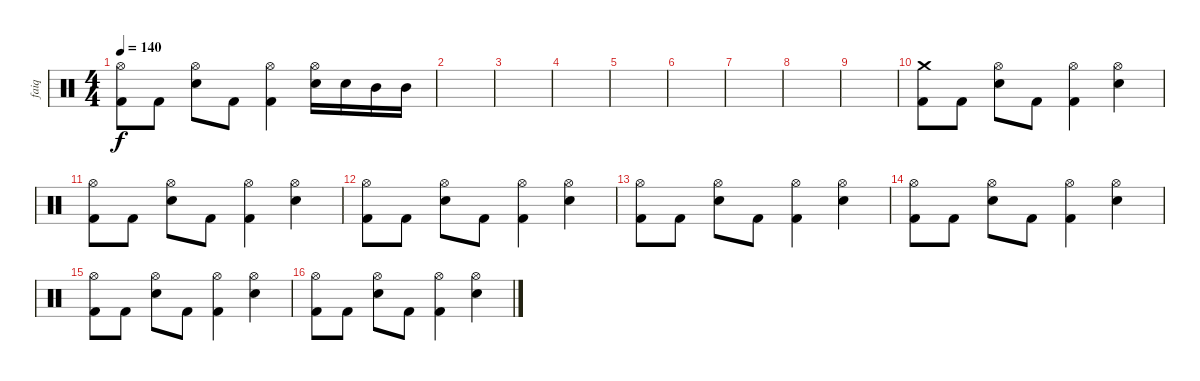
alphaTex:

\track ("faiq" "faiq") {instrument percussion}
\staff {score}
\articulation defaults
\ts (4 4)
\tempo 140
\clef neutral
\ks c
("Hi-Hat (open)" "Kick (hit) 2").8{dy f} "Kick (hit) 2".8 ("Hi-Hat (open)" "Electric Snare (hit)").8 "Kick (hit) 2".8 ("Hi-Hat (open)" "Kick (hit) 2").4 ("Hi-Hat (open)" "Electric Snare (hit)").16 "Electric Snare (hit)".16 "Mid Tom (hit)".16 "Mid Tom (hit)".16 |
|
|
|
|
|
|
|
|
("Crash medium (hit)" "Kick (hit) 2").8 "Kick (hit) 2".8 ("Hi-Hat (open)" "Electric Snare (hit)").8 "Kick (hit) 2".8 ("Hi-Hat (open)" "Kick (hit) 2").4 ("Hi-Hat (open)" "Electric Snare (hit)").4 |
("Hi-Hat (open)" "Kick (hit) 2").8 "Kick (hit) 2".8 ("Hi-Hat (open)" "Electric Snare (hit)").8 "Kick (hit) 2".8 ("Hi-Hat (open)" "Kick (hit) 2").4 ("Hi-Hat (open)" "Electric Snare (hit)").4 |
("Hi-Hat (open)" "Kick (hit) 2").8 "Kick (hit) 2".8 ("Hi-Hat (open)" "Electric Snare (hit)").8 "Kick (hit) 2".8 ("Hi-Hat (open)" "Kick (hit) 2").4 ("Hi-Hat (open)" "Electric Snare (hit)").4 |
("Hi-Hat (open)" "Kick (hit) 2").8 "Kick (hit) 2".8 ("Hi-Hat (open)" "Electric Snare (hit)").8 "Kick (hit) 2".8 ("Hi-Hat (open)" "Kick (hit) 2").4 ("Hi-Hat (open)" "Electric Snare (hit)").4 |
("Hi-Hat (open)" "Kick (hit) 2").8 "Kick (hit) 2".8 ("Hi-Hat (open)" "Electric Snare (hit)").8 "Kick (hit) 2".8 ("Hi-Hat (open)" "Kick (hit) 2").4 ("Hi-Hat (open)" "Electric Snare (hit)").4 |
("Hi-Hat (open)" "Kick (hit) 2").8 "Kick (hit) 2".8 ("Hi-Hat (open)" "Electric Snare (hit)").8 "Kick (hit) 2".8 ("Hi-Hat (open)" "Kick (hit) 2").4 ("Hi-Hat (open)" "Electric Snare (hit)").4 |
("Hi-Hat (open)" "Kick (hit) 2").8 "Kick (hit) 2".8 ("Hi-Hat (open)" "Electric Snare (hit)").8 "Kick (hit) 2".8 ("Hi-Hat (open)" "Kick (hit) 2").4 ("Hi-Hat (open)" "Electric Snare (hit)").4
